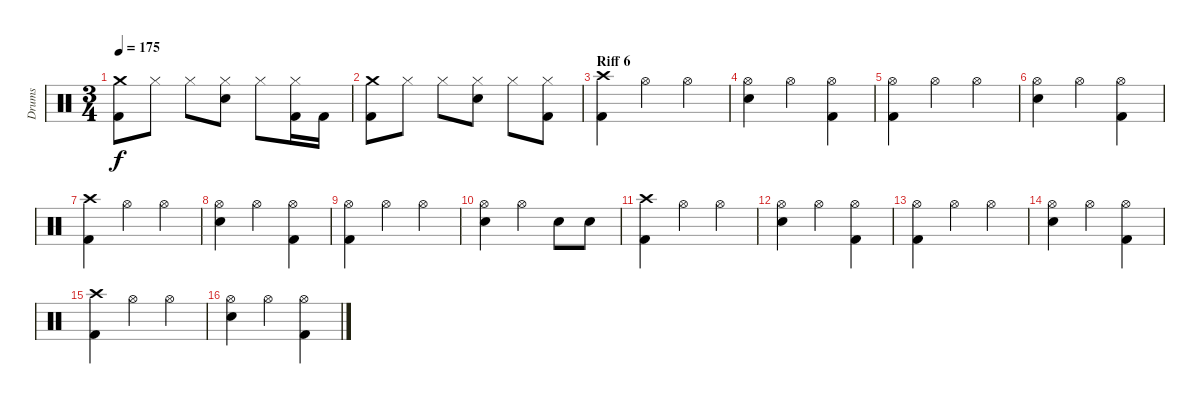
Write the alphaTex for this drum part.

\track ("Drums" "Drums") {instrument percussion}
\staff {score}
\articulation defaults
\ts (3 4)
\tempo 175
\clef neutral
\ks c
("Crash medium (hit)" "Kick (hit) 2").8{dy f} "Hi-Hat (closed)".8 "Hi-Hat (closed)".8 ("Hi-Hat (closed)" "Electric Snare (hit)").8 "Hi-Hat (closed)".8 ("Hi-Hat (closed)" "Kick (hit) 2").16 "Kick (hit) 2".16 |
("Crash medium (hit)" "Kick (hit) 2").8 "Hi-Hat (closed)".8 "Hi-Hat (closed)".8 ("Hi-Hat (closed)" "Electric Snare (hit)").8 "Hi-Hat (closed)".8 ("Hi-Hat (closed)" "Kick (hit) 2").8 |
\section ("" "Riff 6")
("Crash high (hit)" "Kick (hit) 2").4 "Hi-Hat (open)".4 "Hi-Hat (open)".4 |
("Hi-Hat (open)" "Electric Snare (hit)").4 "Hi-Hat (open)".4 ("Hi-Hat (open)" "Kick (hit) 2").4 |
("Hi-Hat (open)" "Kick (hit) 2").4 "Hi-Hat (open)".4 "Hi-Hat (open)".4 |
("Hi-Hat (open)" "Electric Snare (hit)").4 "Hi-Hat (open)".4 ("Hi-Hat (open)" "Kick (hit) 2").4 |
("Crash high (hit)" "Kick (hit) 2").4 "Hi-Hat (open)".4 "Hi-Hat (open)".4 |
("Hi-Hat (open)" "Electric Snare (hit)").4 "Hi-Hat (open)".4 ("Hi-Hat (open)" "Kick (hit) 2").4 |
("Hi-Hat (open)" "Kick (hit) 2").4 "Hi-Hat (open)".4 "Hi-Hat (open)".4 |
("Hi-Hat (open)" "Electric Snare (hit)").4 "Hi-Hat (open)".4 "Electric Snare (hit)".8 "Electric Snare (hit)".8 |
("Crash high (hit)" "Kick (hit) 2").4 "Hi-Hat (open)".4 "Hi-Hat (open)".4 |
("Hi-Hat (open)" "Electric Snare (hit)").4 "Hi-Hat (open)".4 ("Hi-Hat (open)" "Kick (hit) 2").4 |
("Hi-Hat (open)" "Kick (hit) 2").4 "Hi-Hat (open)".4 "Hi-Hat (open)".4 |
("Hi-Hat (open)" "Electric Snare (hit)").4 "Hi-Hat (open)".4 ("Hi-Hat (open)" "Kick (hit) 2").4 |
("Crash high (hit)" "Kick (hit) 2").4 "Hi-Hat (open)".4 "Hi-Hat (open)".4 |
("Hi-Hat (open)" "Electric Snare (hit)").4 "Hi-Hat (open)".4 ("Hi-Hat (open)" "Kick (hit) 2").4
